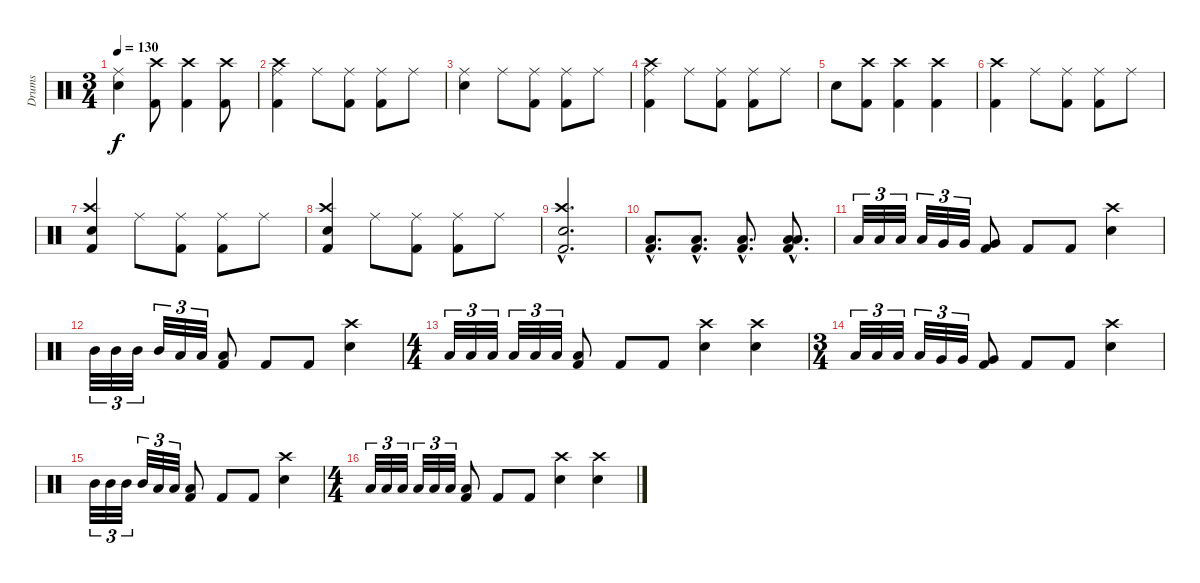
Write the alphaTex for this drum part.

\track ("Drums" "Drums") {instrument percussion}
\staff {score}
\articulation defaults
\ts (3 4)
\tempo 130
\clef neutral
\ks c
("Ride (middle)" "Snare (hit) 2").4{dy f} ("Crash high (hit)" "Kick (hit) 2").8 ("Crash high (hit)" "Kick (hit) 2").4 ("Crash high (hit)" "Kick (hit) 2").8 |
("Crash high (hit)" "Ride (middle)" "Kick (hit) 2").4 "Ride (middle)".8 ("Ride (middle)" "Kick (hit) 2").8 ("Ride (middle)" "Kick (hit) 2").8 "Ride (middle)".8 |
("Ride (middle)" "Snare (hit) 2").4 "Ride (middle)".8 ("Ride (middle)" "Kick (hit) 2").8 ("Ride (middle)" "Kick (hit) 2").8 "Ride (middle)".8 |
("Crash high (hit)" "Ride (middle)" "Kick (hit) 2").4 "Ride (middle)".8 ("Ride (middle)" "Kick (hit) 2").8 ("Ride (middle)" "Kick (hit) 2").8 "Ride (middle)".8 |
"Snare (hit) 2".8 ("Crash high (hit)" "Kick (hit) 2").8 ("Crash high (hit)" "Kick (hit) 2").4 ("Crash high (hit)" "Kick (hit) 2").4 |
("Crash high (hit)" "Kick (hit) 2").4 "Ride (middle)".8 ("Ride (middle)" "Kick (hit) 2").8 ("Ride (middle)" "Kick (hit) 2").8 "Ride (middle)".8 |
("Crash high (hit)" "Snare (hit) 2" "Kick (hit) 2").4 "Ride (middle)".8 ("Ride (middle)" "Kick (hit) 2").8 ("Ride (middle)" "Kick (hit) 2").8 "Ride (middle)".8 |
("Crash high (hit)" "Snare (hit) 2" "Kick (hit) 2").4 "Ride (middle)".8 ("Ride (middle)" "Kick (hit) 2").8 ("Ride (middle)" "Kick (hit) 2").8 "Ride (middle)".8 |
("Crash high (hit)"{hac} "Snare (hit) 2"{hac} "Kick (hit) 2"{hac}).2{d} |
("Low Tom (hit)"{hac} "Kick (hit) 2"{hac}).8{d} ("Low Tom (hit)"{hac} "Kick (hit) 2"{hac}).8{d} ("Low Tom (hit)"{hac} "Kick (hit) 2"{hac}).8{d} ("Low Tom (hit)"{hac} "Low Floor Tom (hit)"{hac} "Kick (hit) 2"{hac}).8{d} |
"Low Floor Tom (hit)".32{tu (3 2)} "Low Floor Tom (hit)".32{tu (3 2)} "Low Floor Tom (hit)".32{tu (3 2)} "Low Floor Tom (hit)".32{tu (3 2)} "Very Low Tom (hit)".32{tu (3 2)} "Very Low Tom (hit)".32{tu (3 2)} ("Very Low Tom (hit)" "Kick (hit) 2").8 "Kick (hit) 2".8 "Kick (hit) 2".8 ("Crash high (hit)" "Snare (hit) 2").4 |
"Mid Tom (hit)".32{tu (3 2)} "Mid Tom (hit)".32{tu (3 2)} "Mid Tom (hit)".32{tu (3 2)} "Mid Tom (hit)".32{tu (3 2)} "Low Tom (hit)".32{tu (3 2)} "Low Tom (hit)".32{tu (3 2)} ("Low Tom (hit)" "Kick (hit) 2").8 "Kick (hit) 2".8 "Kick (hit) 2".8 ("Crash high (hit)" "Snare (hit) 2").4 |
\ts (4 4)
"Low Tom (hit)".32{tu (3 2)} "Low Tom (hit)".32{tu (3 2)} "Low Tom (hit)".32{tu (3 2)} "Low Tom (hit)".32{tu (3 2)} "Low Floor Tom (hit)".32{tu (3 2)} "Low Floor Tom (hit)".32{tu (3 2)} ("Low Floor Tom (hit)" "Kick (hit) 2").8 "Kick (hit) 2".8 "Kick (hit) 2".8 ("Crash high (hit)" "Snare (hit) 2").4 ("Crash high (hit)" "Snare (hit) 2").4 |
\ts (3 4)
"Low Floor Tom (hit)".32{tu (3 2)} "Low Floor Tom (hit)".32{tu (3 2)} "Low Floor Tom (hit)".32{tu (3 2)} "Low Floor Tom (hit)".32{tu (3 2)} "Very Low Tom (hit)".32{tu (3 2)} "Very Low Tom (hit)".32{tu (3 2)} ("Very Low Tom (hit)" "Kick (hit) 2").8 "Kick (hit) 2".8 "Kick (hit) 2".8 ("Crash high (hit)" "Snare (hit) 2").4 |
"Mid Tom (hit)".32{tu (3 2)} "Mid Tom (hit)".32{tu (3 2)} "Mid Tom (hit)".32{tu (3 2)} "Mid Tom (hit)".32{tu (3 2)} "Low Tom (hit)".32{tu (3 2)} "Low Tom (hit)".32{tu (3 2)} ("Low Tom (hit)" "Kick (hit) 2").8 "Kick (hit) 2".8 "Kick (hit) 2".8 ("Crash high (hit)" "Snare (hit) 2").4 |
\ts (4 4)
"Low Tom (hit)".32{tu (3 2)} "Low Tom (hit)".32{tu (3 2)} "Low Tom (hit)".32{tu (3 2)} "Low Tom (hit)".32{tu (3 2)} "Low Floor Tom (hit)".32{tu (3 2)} "Low Floor Tom (hit)".32{tu (3 2)} ("Low Floor Tom (hit)" "Kick (hit) 2").8 "Kick (hit) 2".8 "Kick (hit) 2".8 ("Crash high (hit)" "Snare (hit) 2").4 ("Crash high (hit)" "Snare (hit) 2").4
